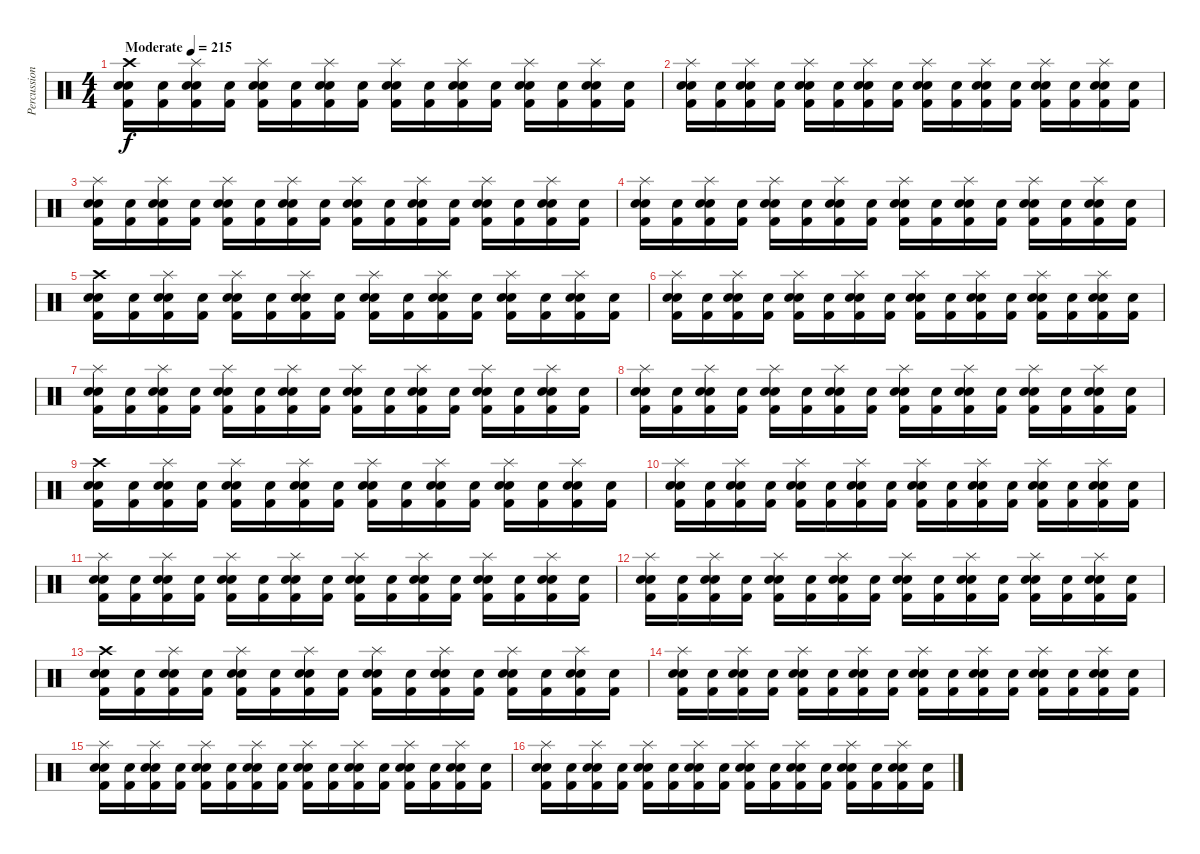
\track ("Percussion" "Percussion") {instrument percussion}
\staff {score}
\articulation defaults
\ts (4 4)
\tempo (215 "Moderate")
\clef neutral
\ks c
("Crash high (hit)" "Snare (hit) 2" "Kick (hit) 2" "Snare (hit)").16{dy f} ("Kick (hit) 2" "Snare (hit)").16 ("Splash (hit)" "Snare (hit) 2" "Kick (hit) 2" "Snare (hit)").16 ("Kick (hit) 2" "Snare (hit)").16 ("Splash (hit)" "Snare (hit) 2" "Kick (hit) 2" "Snare (hit)").16 ("Kick (hit) 2" "Snare (hit)").16 ("Splash (hit)" "Snare (hit) 2" "Kick (hit) 2" "Snare (hit)").16 ("Kick (hit) 2" "Snare (hit)").16 ("Splash (hit)" "Snare (hit) 2" "Kick (hit) 2" "Snare (hit)").16 ("Kick (hit) 2" "Snare (hit)").16 ("Splash (hit)" "Snare (hit) 2" "Kick (hit) 2" "Snare (hit)").16 ("Kick (hit) 2" "Snare (hit)").16 ("Splash (hit)" "Snare (hit) 2" "Kick (hit) 2" "Snare (hit)").16 ("Kick (hit) 2" "Snare (hit)").16 ("Splash (hit)" "Snare (hit) 2" "Kick (hit) 2" "Snare (hit)").16 ("Kick (hit) 2" "Snare (hit)").16 |
("Splash (hit)" "Snare (hit) 2" "Kick (hit) 2" "Snare (hit)").16 ("Kick (hit) 2" "Snare (hit)").16 ("Splash (hit)" "Snare (hit) 2" "Kick (hit) 2" "Snare (hit)").16 ("Kick (hit) 2" "Snare (hit)").16 ("Splash (hit)" "Snare (hit) 2" "Kick (hit) 2" "Snare (hit)").16 ("Kick (hit) 2" "Snare (hit)").16 ("Splash (hit)" "Snare (hit) 2" "Kick (hit) 2" "Snare (hit)").16 ("Kick (hit) 2" "Snare (hit)").16 ("Splash (hit)" "Snare (hit) 2" "Kick (hit) 2" "Snare (hit)").16 ("Kick (hit) 2" "Snare (hit)").16 ("Splash (hit)" "Snare (hit) 2" "Kick (hit) 2" "Snare (hit)").16 ("Kick (hit) 2" "Snare (hit)").16 ("Splash (hit)" "Snare (hit) 2" "Kick (hit) 2" "Snare (hit)").16 ("Kick (hit) 2" "Snare (hit)").16 ("Splash (hit)" "Snare (hit) 2" "Kick (hit) 2" "Snare (hit)").16 ("Kick (hit) 2" "Snare (hit)").16 |
("Splash (hit)" "Snare (hit) 2" "Kick (hit) 2" "Snare (hit)").16 ("Kick (hit) 2" "Snare (hit)").16 ("Splash (hit)" "Snare (hit) 2" "Kick (hit) 2" "Snare (hit)").16 ("Kick (hit) 2" "Snare (hit)").16 ("Splash (hit)" "Snare (hit) 2" "Kick (hit) 2" "Snare (hit)").16 ("Kick (hit) 2" "Snare (hit)").16 ("Splash (hit)" "Snare (hit) 2" "Kick (hit) 2" "Snare (hit)").16 ("Kick (hit) 2" "Snare (hit)").16 ("Splash (hit)" "Snare (hit) 2" "Kick (hit) 2" "Snare (hit)").16 ("Kick (hit) 2" "Snare (hit)").16 ("Splash (hit)" "Snare (hit) 2" "Kick (hit) 2" "Snare (hit)").16 ("Kick (hit) 2" "Snare (hit)").16 ("Splash (hit)" "Snare (hit) 2" "Kick (hit) 2" "Snare (hit)").16 ("Kick (hit) 2" "Snare (hit)").16 ("Splash (hit)" "Snare (hit) 2" "Kick (hit) 2" "Snare (hit)").16 ("Kick (hit) 2" "Snare (hit)").16 |
("Splash (hit)" "Snare (hit) 2" "Kick (hit) 2" "Snare (hit)").16 ("Kick (hit) 2" "Snare (hit)").16 ("Splash (hit)" "Snare (hit) 2" "Kick (hit) 2" "Snare (hit)").16 ("Kick (hit) 2" "Snare (hit)").16 ("Splash (hit)" "Snare (hit) 2" "Kick (hit) 2" "Snare (hit)").16 ("Kick (hit) 2" "Snare (hit)").16 ("Splash (hit)" "Snare (hit) 2" "Kick (hit) 2" "Snare (hit)").16 ("Kick (hit) 2" "Snare (hit)").16 ("Splash (hit)" "Snare (hit) 2" "Kick (hit) 2" "Snare (hit)").16 ("Kick (hit) 2" "Snare (hit)").16 ("Splash (hit)" "Snare (hit) 2" "Kick (hit) 2" "Snare (hit)").16 ("Kick (hit) 2" "Snare (hit)").16 ("Splash (hit)" "Snare (hit) 2" "Kick (hit) 2" "Snare (hit)").16 ("Kick (hit) 2" "Snare (hit)").16 ("Splash (hit)" "Snare (hit) 2" "Kick (hit) 2" "Snare (hit)").16 ("Kick (hit) 2" "Snare (hit)").16 |
("Crash high (hit)" "Snare (hit) 2" "Kick (hit) 2" "Snare (hit)").16 ("Kick (hit) 2" "Snare (hit)").16 ("Splash (hit)" "Snare (hit) 2" "Kick (hit) 2" "Snare (hit)").16 ("Kick (hit) 2" "Snare (hit)").16 ("Splash (hit)" "Snare (hit) 2" "Kick (hit) 2" "Snare (hit)").16 ("Kick (hit) 2" "Snare (hit)").16 ("Splash (hit)" "Snare (hit) 2" "Kick (hit) 2" "Snare (hit)").16 ("Kick (hit) 2" "Snare (hit)").16 ("Splash (hit)" "Snare (hit) 2" "Kick (hit) 2" "Snare (hit)").16 ("Kick (hit) 2" "Snare (hit)").16 ("Splash (hit)" "Snare (hit) 2" "Kick (hit) 2" "Snare (hit)").16 ("Kick (hit) 2" "Snare (hit)").16 ("Splash (hit)" "Snare (hit) 2" "Kick (hit) 2" "Snare (hit)").16 ("Kick (hit) 2" "Snare (hit)").16 ("Splash (hit)" "Snare (hit) 2" "Kick (hit) 2" "Snare (hit)").16 ("Kick (hit) 2" "Snare (hit)").16 |
("Splash (hit)" "Snare (hit) 2" "Kick (hit) 2" "Snare (hit)").16 ("Kick (hit) 2" "Snare (hit)").16 ("Splash (hit)" "Snare (hit) 2" "Kick (hit) 2" "Snare (hit)").16 ("Kick (hit) 2" "Snare (hit)").16 ("Splash (hit)" "Snare (hit) 2" "Kick (hit) 2" "Snare (hit)").16 ("Kick (hit) 2" "Snare (hit)").16 ("Splash (hit)" "Snare (hit) 2" "Kick (hit) 2" "Snare (hit)").16 ("Kick (hit) 2" "Snare (hit)").16 ("Splash (hit)" "Snare (hit) 2" "Kick (hit) 2" "Snare (hit)").16 ("Kick (hit) 2" "Snare (hit)").16 ("Splash (hit)" "Snare (hit) 2" "Kick (hit) 2" "Snare (hit)").16 ("Kick (hit) 2" "Snare (hit)").16 ("Splash (hit)" "Snare (hit) 2" "Kick (hit) 2" "Snare (hit)").16 ("Kick (hit) 2" "Snare (hit)").16 ("Splash (hit)" "Snare (hit) 2" "Kick (hit) 2" "Snare (hit)").16 ("Kick (hit) 2" "Snare (hit)").16 |
("Splash (hit)" "Snare (hit) 2" "Kick (hit) 2" "Snare (hit)").16 ("Kick (hit) 2" "Snare (hit)").16 ("Splash (hit)" "Snare (hit) 2" "Kick (hit) 2" "Snare (hit)").16 ("Kick (hit) 2" "Snare (hit)").16 ("Splash (hit)" "Snare (hit) 2" "Kick (hit) 2" "Snare (hit)").16 ("Kick (hit) 2" "Snare (hit)").16 ("Splash (hit)" "Snare (hit) 2" "Kick (hit) 2" "Snare (hit)").16 ("Kick (hit) 2" "Snare (hit)").16 ("Splash (hit)" "Snare (hit) 2" "Kick (hit) 2" "Snare (hit)").16 ("Kick (hit) 2" "Snare (hit)").16 ("Splash (hit)" "Snare (hit) 2" "Kick (hit) 2" "Snare (hit)").16 ("Kick (hit) 2" "Snare (hit)").16 ("Splash (hit)" "Snare (hit) 2" "Kick (hit) 2" "Snare (hit)").16 ("Kick (hit) 2" "Snare (hit)").16 ("Splash (hit)" "Snare (hit) 2" "Kick (hit) 2" "Snare (hit)").16 ("Kick (hit) 2" "Snare (hit)").16 |
("Splash (hit)" "Snare (hit) 2" "Kick (hit) 2" "Snare (hit)").16 ("Kick (hit) 2" "Snare (hit)").16 ("Splash (hit)" "Snare (hit) 2" "Kick (hit) 2" "Snare (hit)").16 ("Kick (hit) 2" "Snare (hit)").16 ("Splash (hit)" "Snare (hit) 2" "Kick (hit) 2" "Snare (hit)").16 ("Kick (hit) 2" "Snare (hit)").16 ("Splash (hit)" "Snare (hit) 2" "Kick (hit) 2" "Snare (hit)").16 ("Kick (hit) 2" "Snare (hit)").16 ("Splash (hit)" "Snare (hit) 2" "Kick (hit) 2" "Snare (hit)").16 ("Kick (hit) 2" "Snare (hit)").16 ("Splash (hit)" "Snare (hit) 2" "Kick (hit) 2" "Snare (hit)").16 ("Kick (hit) 2" "Snare (hit)").16 ("Splash (hit)" "Snare (hit) 2" "Kick (hit) 2" "Snare (hit)").16 ("Kick (hit) 2" "Snare (hit)").16 ("Splash (hit)" "Snare (hit) 2" "Kick (hit) 2" "Snare (hit)").16 ("Kick (hit) 2" "Snare (hit)").16 |
("Crash high (hit)" "Snare (hit) 2" "Kick (hit) 2" "Snare (hit)").16 ("Kick (hit) 2" "Snare (hit)").16 ("Splash (hit)" "Snare (hit) 2" "Kick (hit) 2" "Snare (hit)").16 ("Kick (hit) 2" "Snare (hit)").16 ("Splash (hit)" "Snare (hit) 2" "Kick (hit) 2" "Snare (hit)").16 ("Kick (hit) 2" "Snare (hit)").16 ("Splash (hit)" "Snare (hit) 2" "Kick (hit) 2" "Snare (hit)").16 ("Kick (hit) 2" "Snare (hit)").16 ("Splash (hit)" "Snare (hit) 2" "Kick (hit) 2" "Snare (hit)").16 ("Kick (hit) 2" "Snare (hit)").16 ("Splash (hit)" "Snare (hit) 2" "Kick (hit) 2" "Snare (hit)").16 ("Kick (hit) 2" "Snare (hit)").16 ("Splash (hit)" "Snare (hit) 2" "Kick (hit) 2" "Snare (hit)").16 ("Kick (hit) 2" "Snare (hit)").16 ("Splash (hit)" "Snare (hit) 2" "Kick (hit) 2" "Snare (hit)").16 ("Kick (hit) 2" "Snare (hit)").16 |
("Splash (hit)" "Snare (hit) 2" "Kick (hit) 2" "Snare (hit)").16 ("Kick (hit) 2" "Snare (hit)").16 ("Splash (hit)" "Snare (hit) 2" "Kick (hit) 2" "Snare (hit)").16 ("Kick (hit) 2" "Snare (hit)").16 ("Splash (hit)" "Snare (hit) 2" "Kick (hit) 2" "Snare (hit)").16 ("Kick (hit) 2" "Snare (hit)").16 ("Splash (hit)" "Snare (hit) 2" "Kick (hit) 2" "Snare (hit)").16 ("Kick (hit) 2" "Snare (hit)").16 ("Splash (hit)" "Snare (hit) 2" "Kick (hit) 2" "Snare (hit)").16 ("Kick (hit) 2" "Snare (hit)").16 ("Splash (hit)" "Snare (hit) 2" "Kick (hit) 2" "Snare (hit)").16 ("Kick (hit) 2" "Snare (hit)").16 ("Splash (hit)" "Snare (hit) 2" "Kick (hit) 2" "Snare (hit)").16 ("Kick (hit) 2" "Snare (hit)").16 ("Splash (hit)" "Snare (hit) 2" "Kick (hit) 2" "Snare (hit)").16 ("Kick (hit) 2" "Snare (hit)").16 |
("Splash (hit)" "Snare (hit) 2" "Kick (hit) 2" "Snare (hit)").16 ("Kick (hit) 2" "Snare (hit)").16 ("Splash (hit)" "Snare (hit) 2" "Kick (hit) 2" "Snare (hit)").16 ("Kick (hit) 2" "Snare (hit)").16 ("Splash (hit)" "Snare (hit) 2" "Kick (hit) 2" "Snare (hit)").16 ("Kick (hit) 2" "Snare (hit)").16 ("Splash (hit)" "Snare (hit) 2" "Kick (hit) 2" "Snare (hit)").16 ("Kick (hit) 2" "Snare (hit)").16 ("Splash (hit)" "Snare (hit) 2" "Kick (hit) 2" "Snare (hit)").16 ("Kick (hit) 2" "Snare (hit)").16 ("Splash (hit)" "Snare (hit) 2" "Kick (hit) 2" "Snare (hit)").16 ("Kick (hit) 2" "Snare (hit)").16 ("Splash (hit)" "Snare (hit) 2" "Kick (hit) 2" "Snare (hit)").16 ("Kick (hit) 2" "Snare (hit)").16 ("Splash (hit)" "Snare (hit) 2" "Kick (hit) 2" "Snare (hit)").16 ("Kick (hit) 2" "Snare (hit)").16 |
("Splash (hit)" "Snare (hit) 2" "Kick (hit) 2" "Snare (hit)").16 ("Kick (hit) 2" "Snare (hit)").16 ("Splash (hit)" "Snare (hit) 2" "Kick (hit) 2" "Snare (hit)").16 ("Kick (hit) 2" "Snare (hit)").16 ("Splash (hit)" "Snare (hit) 2" "Kick (hit) 2" "Snare (hit)").16 ("Kick (hit) 2" "Snare (hit)").16 ("Splash (hit)" "Snare (hit) 2" "Kick (hit) 2" "Snare (hit)").16 ("Kick (hit) 2" "Snare (hit)").16 ("Splash (hit)" "Snare (hit) 2" "Kick (hit) 2" "Snare (hit)").16 ("Kick (hit) 2" "Snare (hit)").16 ("Splash (hit)" "Snare (hit) 2" "Kick (hit) 2" "Snare (hit)").16 ("Kick (hit) 2" "Snare (hit)").16 ("Splash (hit)" "Snare (hit) 2" "Kick (hit) 2" "Snare (hit)").16 ("Kick (hit) 2" "Snare (hit)").16 ("Splash (hit)" "Snare (hit) 2" "Kick (hit) 2" "Snare (hit)").16 ("Kick (hit) 2" "Snare (hit)").16 |
("Crash high (hit)" "Snare (hit) 2" "Kick (hit) 2" "Snare (hit)").16 ("Kick (hit) 2" "Snare (hit)").16 ("Splash (hit)" "Snare (hit) 2" "Kick (hit) 2" "Snare (hit)").16 ("Kick (hit) 2" "Snare (hit)").16 ("Splash (hit)" "Snare (hit) 2" "Kick (hit) 2" "Snare (hit)").16 ("Kick (hit) 2" "Snare (hit)").16 ("Splash (hit)" "Snare (hit) 2" "Kick (hit) 2" "Snare (hit)").16 ("Kick (hit) 2" "Snare (hit)").16 ("Splash (hit)" "Snare (hit) 2" "Kick (hit) 2" "Snare (hit)").16 ("Kick (hit) 2" "Snare (hit)").16 ("Splash (hit)" "Snare (hit) 2" "Kick (hit) 2" "Snare (hit)").16 ("Kick (hit) 2" "Snare (hit)").16 ("Splash (hit)" "Snare (hit) 2" "Kick (hit) 2" "Snare (hit)").16 ("Kick (hit) 2" "Snare (hit)").16 ("Splash (hit)" "Snare (hit) 2" "Kick (hit) 2" "Snare (hit)").16 ("Kick (hit) 2" "Snare (hit)").16 |
("Splash (hit)" "Snare (hit) 2" "Kick (hit) 2" "Snare (hit)").16 ("Kick (hit) 2" "Snare (hit)").16 ("Splash (hit)" "Snare (hit) 2" "Kick (hit) 2" "Snare (hit)").16 ("Kick (hit) 2" "Snare (hit)").16 ("Splash (hit)" "Snare (hit) 2" "Kick (hit) 2" "Snare (hit)").16 ("Kick (hit) 2" "Snare (hit)").16 ("Splash (hit)" "Snare (hit) 2" "Kick (hit) 2" "Snare (hit)").16 ("Kick (hit) 2" "Snare (hit)").16 ("Splash (hit)" "Snare (hit) 2" "Kick (hit) 2" "Snare (hit)").16 ("Kick (hit) 2" "Snare (hit)").16 ("Splash (hit)" "Snare (hit) 2" "Kick (hit) 2" "Snare (hit)").16 ("Kick (hit) 2" "Snare (hit)").16 ("Splash (hit)" "Snare (hit) 2" "Kick (hit) 2" "Snare (hit)").16 ("Kick (hit) 2" "Snare (hit)").16 ("Splash (hit)" "Snare (hit) 2" "Kick (hit) 2" "Snare (hit)").16 ("Kick (hit) 2" "Snare (hit)").16 |
("Splash (hit)" "Snare (hit) 2" "Kick (hit) 2" "Snare (hit)").16 ("Kick (hit) 2" "Snare (hit)").16 ("Splash (hit)" "Snare (hit) 2" "Kick (hit) 2" "Snare (hit)").16 ("Kick (hit) 2" "Snare (hit)").16 ("Splash (hit)" "Snare (hit) 2" "Kick (hit) 2" "Snare (hit)").16 ("Kick (hit) 2" "Snare (hit)").16 ("Splash (hit)" "Snare (hit) 2" "Kick (hit) 2" "Snare (hit)").16 ("Kick (hit) 2" "Snare (hit)").16 ("Splash (hit)" "Snare (hit) 2" "Kick (hit) 2" "Snare (hit)").16 ("Kick (hit) 2" "Snare (hit)").16 ("Splash (hit)" "Snare (hit) 2" "Kick (hit) 2" "Snare (hit)").16 ("Kick (hit) 2" "Snare (hit)").16 ("Splash (hit)" "Snare (hit) 2" "Kick (hit) 2" "Snare (hit)").16 ("Kick (hit) 2" "Snare (hit)").16 ("Splash (hit)" "Snare (hit) 2" "Kick (hit) 2" "Snare (hit)").16 ("Kick (hit) 2" "Snare (hit)").16 |
("Splash (hit)" "Snare (hit) 2" "Kick (hit) 2" "Snare (hit)").16 ("Kick (hit) 2" "Snare (hit)").16 ("Splash (hit)" "Snare (hit) 2" "Kick (hit) 2" "Snare (hit)").16 ("Kick (hit) 2" "Snare (hit)").16 ("Splash (hit)" "Snare (hit) 2" "Kick (hit) 2" "Snare (hit)").16 ("Kick (hit) 2" "Snare (hit)").16 ("Splash (hit)" "Snare (hit) 2" "Kick (hit) 2" "Snare (hit)").16 ("Kick (hit) 2" "Snare (hit)").16 ("Splash (hit)" "Snare (hit) 2" "Kick (hit) 2" "Snare (hit)").16 ("Kick (hit) 2" "Snare (hit)").16 ("Splash (hit)" "Snare (hit) 2" "Kick (hit) 2" "Snare (hit)").16 ("Kick (hit) 2" "Snare (hit)").16 ("Splash (hit)" "Snare (hit) 2" "Kick (hit) 2" "Snare (hit)").16 ("Kick (hit) 2" "Snare (hit)").16 ("Splash (hit)" "Snare (hit) 2" "Kick (hit) 2" "Snare (hit)").16 ("Kick (hit) 2" "Snare (hit)").16
